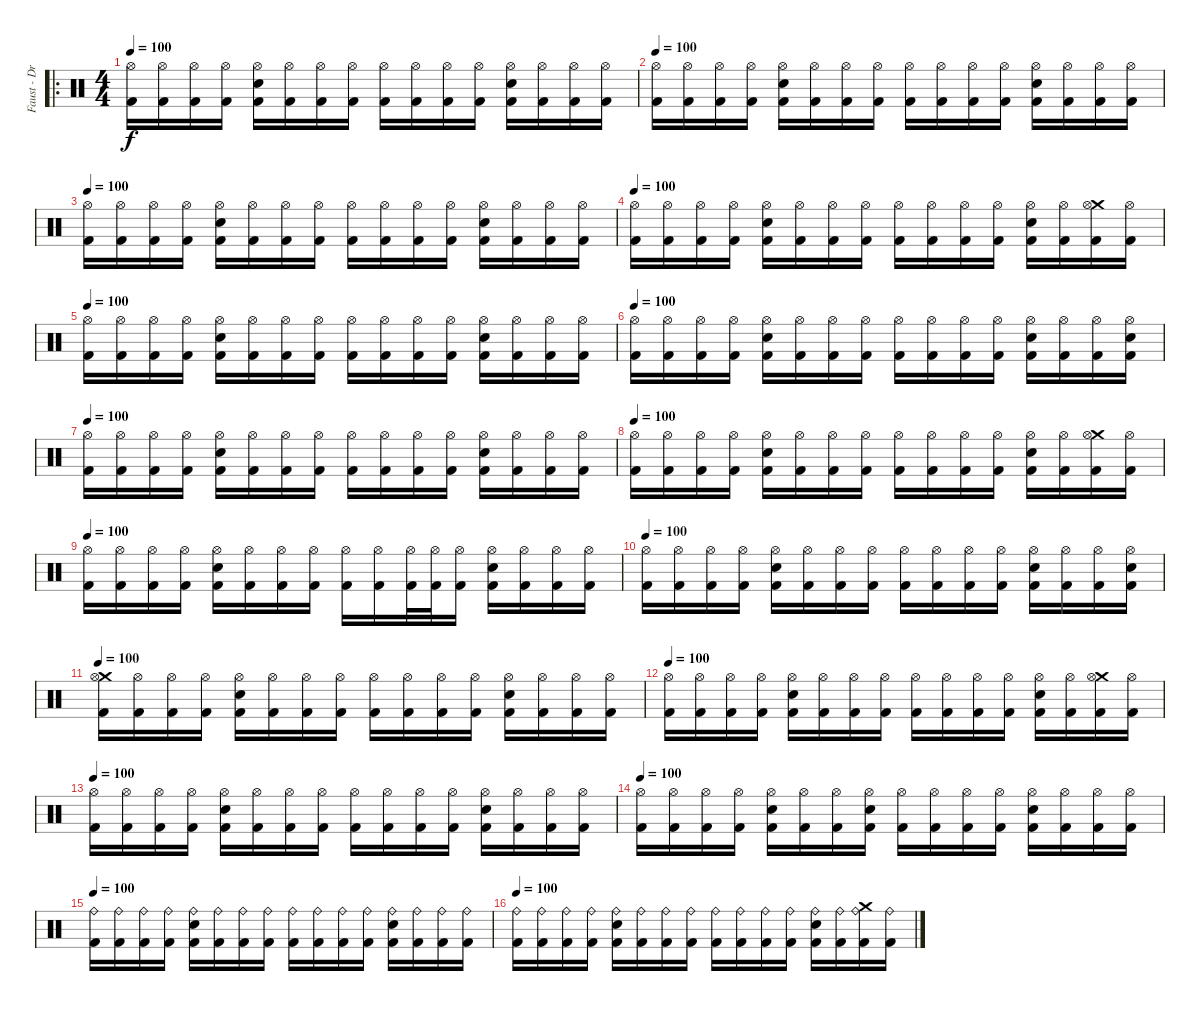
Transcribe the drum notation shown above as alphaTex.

\track ("Faust - Drums" "Faust - Dr") {instrument percussion}
\staff {score}
\articulation defaults
\ro
\ts (4 4)
\tempo 100
\clef neutral
\ks c
("Hi-Hat (open)" "Kick (hit) 2").16{dy f} ("Hi-Hat (open)" "Kick (hit) 2").16 ("Hi-Hat (open)" "Kick (hit) 2").16 ("Hi-Hat (open)" "Kick (hit) 2").16 ("Electric Snare (hit)" "Hi-Hat (open)" "Kick (hit) 2").16 ("Hi-Hat (open)" "Kick (hit) 2").16 ("Hi-Hat (open)" "Kick (hit) 2").16 ("Hi-Hat (open)" "Kick (hit) 2").16 ("Hi-Hat (open)" "Kick (hit) 2").16 ("Hi-Hat (open)" "Kick (hit) 2").16 ("Hi-Hat (open)" "Kick (hit) 2").16 ("Hi-Hat (open)" "Kick (hit) 2").16 ("Electric Snare (hit)" "Hi-Hat (open)" "Kick (hit) 2").16 ("Hi-Hat (open)" "Kick (hit) 2").16 ("Hi-Hat (open)" "Kick (hit) 2").16 ("Hi-Hat (open)" "Kick (hit) 2").16 |
\tempo 100
("Hi-Hat (open)" "Kick (hit) 2").16 ("Hi-Hat (open)" "Kick (hit) 2").16 ("Hi-Hat (open)" "Kick (hit) 2").16 ("Hi-Hat (open)" "Kick (hit) 2").16 ("Electric Snare (hit)" "Hi-Hat (open)" "Kick (hit) 2").16 ("Hi-Hat (open)" "Kick (hit) 2").16 ("Hi-Hat (open)" "Kick (hit) 2").16 ("Hi-Hat (open)" "Kick (hit) 2").16 ("Hi-Hat (open)" "Kick (hit) 2").16 ("Hi-Hat (open)" "Kick (hit) 2").16 ("Hi-Hat (open)" "Kick (hit) 2").16 ("Hi-Hat (open)" "Kick (hit) 2").16 ("Electric Snare (hit)" "Hi-Hat (open)" "Kick (hit) 2").16 ("Hi-Hat (open)" "Kick (hit) 2").16 ("Hi-Hat (open)" "Kick (hit) 2").16 ("Hi-Hat (open)" "Kick (hit) 2").16 |
\tempo 100
("Hi-Hat (open)" "Kick (hit) 2").16 ("Hi-Hat (open)" "Kick (hit) 2").16 ("Hi-Hat (open)" "Kick (hit) 2").16 ("Hi-Hat (open)" "Kick (hit) 2").16 ("Electric Snare (hit)" "Hi-Hat (open)" "Kick (hit) 2").16 ("Hi-Hat (open)" "Kick (hit) 2").16 ("Hi-Hat (open)" "Kick (hit) 2").16 ("Hi-Hat (open)" "Kick (hit) 2").16 ("Hi-Hat (open)" "Kick (hit) 2").16 ("Hi-Hat (open)" "Kick (hit) 2").16 ("Hi-Hat (open)" "Kick (hit) 2").16 ("Hi-Hat (open)" "Kick (hit) 2").16 ("Electric Snare (hit)" "Hi-Hat (open)" "Kick (hit) 2").16 ("Hi-Hat (open)" "Kick (hit) 2").16 ("Hi-Hat (open)" "Kick (hit) 2").16 ("Hi-Hat (open)" "Kick (hit) 2").16 |
\tempo 100
("Hi-Hat (open)" "Kick (hit) 2").16 ("Hi-Hat (open)" "Kick (hit) 2").16 ("Hi-Hat (open)" "Kick (hit) 2").16 ("Hi-Hat (open)" "Kick (hit) 2").16 ("Electric Snare (hit)" "Hi-Hat (open)" "Kick (hit) 2").16 ("Hi-Hat (open)" "Kick (hit) 2").16 ("Hi-Hat (open)" "Kick (hit) 2").16 ("Hi-Hat (open)" "Kick (hit) 2").16 ("Hi-Hat (open)" "Kick (hit) 2").16 ("Hi-Hat (open)" "Kick (hit) 2").16 ("Hi-Hat (open)" "Kick (hit) 2").16 ("Hi-Hat (open)" "Kick (hit) 2").16 ("Electric Snare (hit)" "Hi-Hat (open)" "Kick (hit) 2").16 ("Hi-Hat (open)" "Kick (hit) 2").16 ("Crash medium (hit)" "Hi-Hat (open)" "Kick (hit) 2").16 ("Hi-Hat (open)" "Kick (hit) 2").16 |
\tempo 100
("Hi-Hat (open)" "Kick (hit) 2").16 ("Hi-Hat (open)" "Kick (hit) 2").16 ("Hi-Hat (open)" "Kick (hit) 2").16 ("Hi-Hat (open)" "Kick (hit) 2").16 ("Electric Snare (hit)" "Hi-Hat (open)" "Kick (hit) 2").16 ("Hi-Hat (open)" "Kick (hit) 2").16 ("Hi-Hat (open)" "Kick (hit) 2").16 ("Hi-Hat (open)" "Kick (hit) 2").16 ("Hi-Hat (open)" "Kick (hit) 2").16 ("Hi-Hat (open)" "Kick (hit) 2").16 ("Hi-Hat (open)" "Kick (hit) 2").16 ("Hi-Hat (open)" "Kick (hit) 2").16 ("Electric Snare (hit)" "Hi-Hat (open)" "Kick (hit) 2").16 ("Hi-Hat (open)" "Kick (hit) 2").16 ("Hi-Hat (open)" "Kick (hit) 2").16 ("Hi-Hat (open)" "Kick (hit) 2").16 |
\tempo 100
("Hi-Hat (open)" "Kick (hit) 2").16 ("Hi-Hat (open)" "Kick (hit) 2").16 ("Hi-Hat (open)" "Kick (hit) 2").16 ("Hi-Hat (open)" "Kick (hit) 2").16 ("Electric Snare (hit)" "Hi-Hat (open)" "Kick (hit) 2").16 ("Hi-Hat (open)" "Kick (hit) 2").16 ("Hi-Hat (open)" "Kick (hit) 2").16 ("Hi-Hat (open)" "Kick (hit) 2").16 ("Hi-Hat (open)" "Kick (hit) 2").16 ("Hi-Hat (open)" "Kick (hit) 2").16 ("Hi-Hat (open)" "Kick (hit) 2").16 ("Hi-Hat (open)" "Kick (hit) 2").16 ("Electric Snare (hit)" "Hi-Hat (open)" "Kick (hit) 2").16 ("Hi-Hat (open)" "Kick (hit) 2").16 ("Hi-Hat (open)" "Kick (hit) 2").16 ("Electric Snare (hit)" "Hi-Hat (open)" "Kick (hit) 2").16 |
\tempo 100
("Hi-Hat (open)" "Kick (hit) 2").16 ("Hi-Hat (open)" "Kick (hit) 2").16 ("Hi-Hat (open)" "Kick (hit) 2").16 ("Hi-Hat (open)" "Kick (hit) 2").16 ("Electric Snare (hit)" "Hi-Hat (open)" "Kick (hit) 2").16 ("Hi-Hat (open)" "Kick (hit) 2").16 ("Hi-Hat (open)" "Kick (hit) 2").16 ("Hi-Hat (open)" "Kick (hit) 2").16 ("Hi-Hat (open)" "Kick (hit) 2").16 ("Hi-Hat (open)" "Kick (hit) 2").16 ("Hi-Hat (open)" "Kick (hit) 2").16 ("Hi-Hat (open)" "Kick (hit) 2").16 ("Electric Snare (hit)" "Hi-Hat (open)" "Kick (hit) 2").16 ("Hi-Hat (open)" "Kick (hit) 2").16 ("Hi-Hat (open)" "Kick (hit) 2").16 ("Hi-Hat (open)" "Kick (hit) 2").16 |
\tempo 100
("Hi-Hat (open)" "Kick (hit) 2").16 ("Hi-Hat (open)" "Kick (hit) 2").16 ("Hi-Hat (open)" "Kick (hit) 2").16 ("Hi-Hat (open)" "Kick (hit) 2").16 ("Electric Snare (hit)" "Hi-Hat (open)" "Kick (hit) 2").16 ("Hi-Hat (open)" "Kick (hit) 2").16 ("Hi-Hat (open)" "Kick (hit) 2").16 ("Hi-Hat (open)" "Kick (hit) 2").16 ("Hi-Hat (open)" "Kick (hit) 2").16 ("Hi-Hat (open)" "Kick (hit) 2").16 ("Hi-Hat (open)" "Kick (hit) 2").16 ("Hi-Hat (open)" "Kick (hit) 2").16 ("Electric Snare (hit)" "Hi-Hat (open)" "Kick (hit) 2").16 ("Hi-Hat (open)" "Kick (hit) 2").16 ("Crash medium (hit)" "Hi-Hat (open)" "Kick (hit) 2").16 ("Hi-Hat (open)" "Kick (hit) 2").16 |
\tempo 100
("Hi-Hat (open)" "Kick (hit) 2").16 ("Hi-Hat (open)" "Kick (hit) 2").16 ("Hi-Hat (open)" "Kick (hit) 2").16 ("Hi-Hat (open)" "Kick (hit) 2").16 ("Electric Snare (hit)" "Hi-Hat (open)" "Kick (hit) 2").16 ("Hi-Hat (open)" "Kick (hit) 2").16 ("Hi-Hat (open)" "Kick (hit) 2").16 ("Hi-Hat (open)" "Kick (hit) 2").16 ("Hi-Hat (open)" "Kick (hit) 2").16 ("Hi-Hat (open)" "Kick (hit) 2").16 ("Hi-Hat (open)" "Kick (hit) 2").32 ("Hi-Hat (open)" "Kick (hit) 2").32 ("Hi-Hat (open)" "Kick (hit) 2").16 ("Electric Snare (hit)" "Hi-Hat (open)" "Kick (hit) 2").16 ("Hi-Hat (open)" "Kick (hit) 2").16 ("Hi-Hat (open)" "Kick (hit) 2").16 ("Hi-Hat (open)" "Kick (hit) 2").16 |
\tempo 100
("Hi-Hat (open)" "Kick (hit) 2").16 ("Hi-Hat (open)" "Kick (hit) 2").16 ("Hi-Hat (open)" "Kick (hit) 2").16 ("Hi-Hat (open)" "Kick (hit) 2").16 ("Electric Snare (hit)" "Hi-Hat (open)" "Kick (hit) 2").16 ("Hi-Hat (open)" "Kick (hit) 2").16 ("Hi-Hat (open)" "Kick (hit) 2").16 ("Hi-Hat (open)" "Kick (hit) 2").16 ("Hi-Hat (open)" "Kick (hit) 2").16 ("Hi-Hat (open)" "Kick (hit) 2").16 ("Hi-Hat (open)" "Kick (hit) 2").16 ("Hi-Hat (open)" "Kick (hit) 2").16 ("Electric Snare (hit)" "Hi-Hat (open)" "Kick (hit) 2").16 ("Hi-Hat (open)" "Kick (hit) 2").16 ("Hi-Hat (open)" "Kick (hit) 2").16 ("Electric Snare (hit)" "Hi-Hat (open)" "Kick (hit) 2").16 |
\tempo 100
("Crash medium (hit)" "Hi-Hat (open)" "Kick (hit) 2").16 ("Hi-Hat (open)" "Kick (hit) 2").16 ("Hi-Hat (open)" "Kick (hit) 2").16 ("Hi-Hat (open)" "Kick (hit) 2").16 ("Electric Snare (hit)" "Hi-Hat (open)" "Kick (hit) 2").16 ("Hi-Hat (open)" "Kick (hit) 2").16 ("Hi-Hat (open)" "Kick (hit) 2").16 ("Hi-Hat (open)" "Kick (hit) 2").16 ("Hi-Hat (open)" "Kick (hit) 2").16 ("Hi-Hat (open)" "Kick (hit) 2").16 ("Hi-Hat (open)" "Kick (hit) 2").16 ("Hi-Hat (open)" "Kick (hit) 2").16 ("Electric Snare (hit)" "Hi-Hat (open)" "Kick (hit) 2").16 ("Hi-Hat (open)" "Kick (hit) 2").16 ("Hi-Hat (open)" "Kick (hit) 2").16 ("Hi-Hat (open)" "Kick (hit) 2").16 |
\tempo 100
("Hi-Hat (open)" "Kick (hit) 2").16 ("Hi-Hat (open)" "Kick (hit) 2").16 ("Hi-Hat (open)" "Kick (hit) 2").16 ("Hi-Hat (open)" "Kick (hit) 2").16 ("Electric Snare (hit)" "Hi-Hat (open)" "Kick (hit) 2").16 ("Hi-Hat (open)" "Kick (hit) 2").16 ("Hi-Hat (open)" "Kick (hit) 2").16 ("Hi-Hat (open)" "Kick (hit) 2").16 ("Hi-Hat (open)" "Kick (hit) 2").16 ("Hi-Hat (open)" "Kick (hit) 2").16 ("Hi-Hat (open)" "Kick (hit) 2").16 ("Hi-Hat (open)" "Kick (hit) 2").16 ("Electric Snare (hit)" "Hi-Hat (open)" "Kick (hit) 2").16 ("Hi-Hat (open)" "Kick (hit) 2").16 ("Crash medium (hit)" "Hi-Hat (open)" "Kick (hit) 2").16 ("Hi-Hat (open)" "Kick (hit) 2").16 |
\tempo 100
("Hi-Hat (open)" "Kick (hit) 2").16 ("Hi-Hat (open)" "Kick (hit) 2").16 ("Hi-Hat (open)" "Kick (hit) 2").16 ("Hi-Hat (open)" "Kick (hit) 2").16 ("Electric Snare (hit)" "Hi-Hat (open)" "Kick (hit) 2").16 ("Hi-Hat (open)" "Kick (hit) 2").16 ("Hi-Hat (open)" "Kick (hit) 2").16 ("Hi-Hat (open)" "Kick (hit) 2").16 ("Hi-Hat (open)" "Kick (hit) 2").16 ("Hi-Hat (open)" "Kick (hit) 2").16 ("Hi-Hat (open)" "Kick (hit) 2").16 ("Hi-Hat (open)" "Kick (hit) 2").16 ("Electric Snare (hit)" "Hi-Hat (open)" "Kick (hit) 2").16 ("Hi-Hat (open)" "Kick (hit) 2").16 ("Hi-Hat (open)" "Kick (hit) 2").16 ("Hi-Hat (open)" "Kick (hit) 2").16 |
\tempo 100
("Hi-Hat (open)" "Kick (hit) 2").16 ("Hi-Hat (open)" "Kick (hit) 2").16 ("Hi-Hat (open)" "Kick (hit) 2").16 ("Hi-Hat (open)" "Kick (hit) 2").16 ("Electric Snare (hit)" "Hi-Hat (open)" "Kick (hit) 2").16 ("Hi-Hat (open)" "Kick (hit) 2").16 ("Hi-Hat (open)" "Kick (hit) 2").16 ("Electric Snare (hit)" "Hi-Hat (open)" "Kick (hit) 2").16 ("Hi-Hat (open)" "Kick (hit) 2").16 ("Hi-Hat (open)" "Kick (hit) 2").16 ("Hi-Hat (open)" "Kick (hit) 2").16 ("Hi-Hat (open)" "Kick (hit) 2").16 ("Electric Snare (hit)" "Hi-Hat (open)" "Kick (hit) 2").16 ("Hi-Hat (open)" "Kick (hit) 2").16 ("Hi-Hat (open)" "Kick (hit) 2").16 ("Hi-Hat (open)" "Kick (hit) 2").16 |
\tempo 100
("Ride (bell)" "Kick (hit) 2").16 ("Ride (bell)" "Kick (hit) 2").16 ("Ride (bell)" "Kick (hit) 2").16 ("Ride (bell)" "Kick (hit) 2").16 ("Electric Snare (hit)" "Ride (bell)" "Kick (hit) 2").16 ("Ride (bell)" "Kick (hit) 2").16 ("Ride (bell)" "Kick (hit) 2").16 ("Ride (bell)" "Kick (hit) 2").16 ("Ride (bell)" "Kick (hit) 2").16 ("Ride (bell)" "Kick (hit) 2").16 ("Ride (bell)" "Kick (hit) 2").16 ("Ride (bell)" "Kick (hit) 2").16 ("Electric Snare (hit)" "Ride (bell)" "Kick (hit) 2").16 ("Ride (bell)" "Kick (hit) 2").16 ("Ride (bell)" "Kick (hit) 2").16 ("Ride (bell)" "Kick (hit) 2").16 |
\tempo 100
("Ride (bell)" "Kick (hit) 2").16 ("Ride (bell)" "Kick (hit) 2").16 ("Ride (bell)" "Kick (hit) 2").16 ("Ride (bell)" "Kick (hit) 2").16 ("Electric Snare (hit)" "Ride (bell)" "Kick (hit) 2").16 ("Ride (bell)" "Kick (hit) 2").16 ("Ride (bell)" "Kick (hit) 2").16 ("Ride (bell)" "Kick (hit) 2").16 ("Ride (bell)" "Kick (hit) 2").16 ("Ride (bell)" "Kick (hit) 2").16 ("Ride (bell)" "Kick (hit) 2").16 ("Ride (bell)" "Kick (hit) 2").16 ("Electric Snare (hit)" "Ride (bell)" "Kick (hit) 2").16 ("Ride (bell)" "Kick (hit) 2").16 ("Crash medium (hit)" "Ride (bell)" "Kick (hit) 2").16 ("Ride (bell)" "Kick (hit) 2").16
